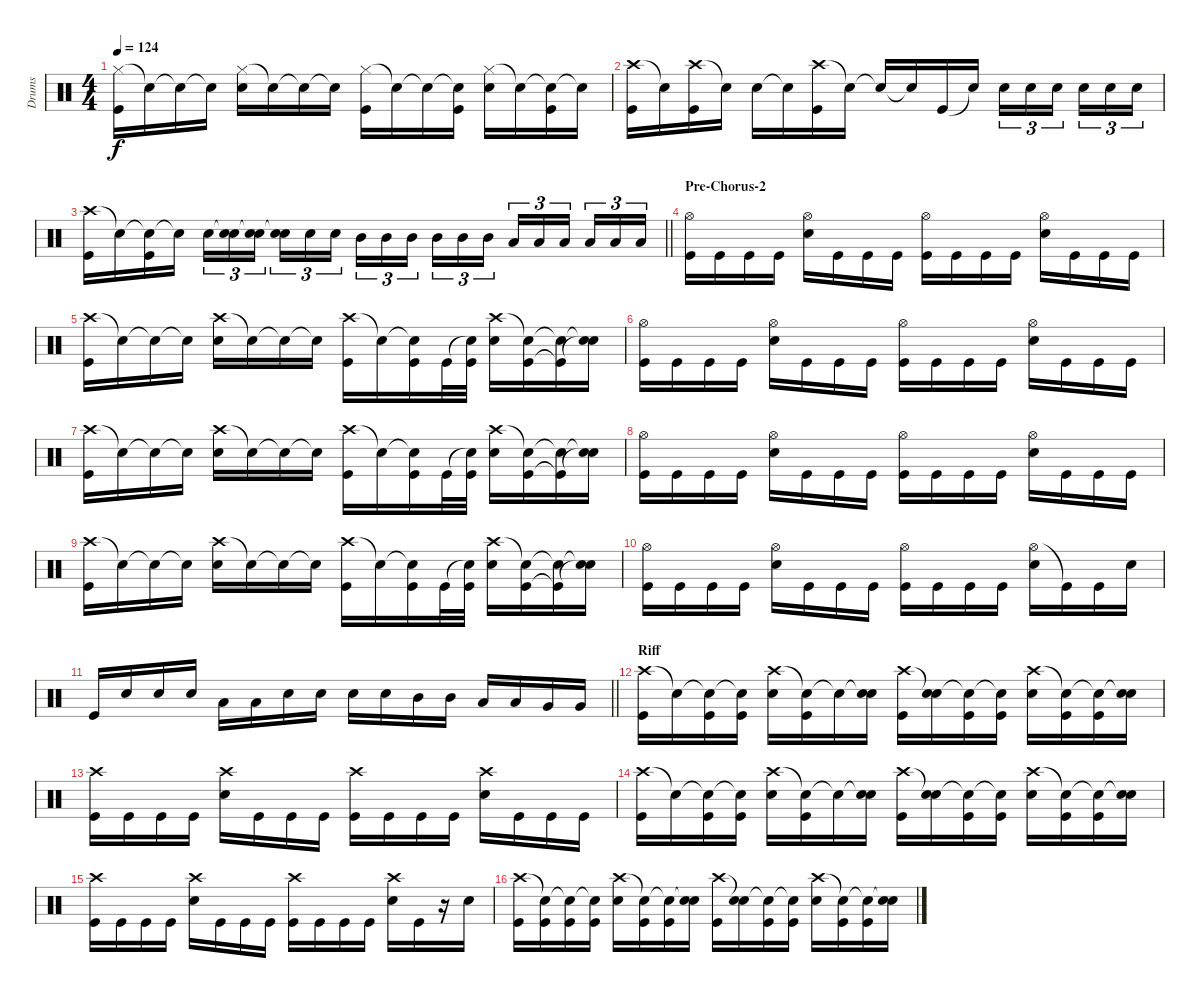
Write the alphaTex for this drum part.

\track ("Drums" "Drums") {instrument percussion}
\staff {score}
\articulation defaults
\ts (4 4)
\tempo 124
\clef neutral
\ks c
("Hi-Hat (closed)" "Kick (hit)").16{dy f} "Snare (hit)"{t}.16 "Snare (hit)"{t}.16 "Snare (hit)"{t}.16 ("Hi-Hat (closed)" "Electric Snare (hit)").16 "Snare (hit)"{t}.16 "Snare (hit)"{t}.16 "Snare (hit)"{t}.16 ("Hi-Hat (closed)" "Kick (hit)").16 "Snare (hit)"{t}.16 "Snare (hit)"{t}.16 ("Snare (hit)"{t} "Kick (hit)").16 ("Hi-Hat (closed)" "Electric Snare (hit)").16 "Snare (hit)"{t}.16 ("Snare (hit)"{t} "Kick (hit)").16 "Snare (hit)"{t}.16 |
("Crash high (hit)" "Kick (hit)").16 "Snare (hit)"{t}.16 ("Crash high (hit)" "Kick (hit)").16 "Snare (hit)"{t}.16 "Electric Snare (hit)".16 "Snare (hit)"{t}.16 ("Crash high (hit)" "Kick (hit)").16 "Snare (hit)"{t}.16 "Snare (hit)"{t}.16 "Snare (hit)"{t}.16 "Kick (hit)".16 "Snare (hit)"{t}.16 "Electric Snare (hit)".16{tu (3 2)} "Electric Snare (hit)".16{tu (3 2)} "Electric Snare (hit)".16{tu (3 2)} "Electric Snare (hit)".16{tu (3 2)} "Electric Snare (hit)".16{tu (3 2)} "Electric Snare (hit)".16{tu (3 2)} |
\barLineRight lightlight
("Crash high (hit)" "Kick (hit)").16 "Snare (hit)"{t}.16 ("Snare (hit)"{t} "Kick (hit)").16 "Snare (hit)"{t}.16 "Electric Snare (hit)".16{tu (3 2)} ("Snare (hit)"{t} "Electric Snare (hit)").16{tu (3 2)} ("Snare (hit)"{t} "Electric Snare (hit)").16{tu (3 2)} ("Snare (hit)"{t} "Electric Snare (hit)").16{tu (3 2)} "Electric Snare (hit)".16{tu (3 2)} "Electric Snare (hit)".16{tu (3 2)} "Mid Tom (hit)".16{tu (3 2)} "Mid Tom (hit)".16{tu (3 2)} "Mid Tom (hit)".16{tu (3 2)} "Mid Tom (hit)".16{tu (3 2)} "Mid Tom (hit)".16{tu (3 2)} "Mid Tom (hit)".16{tu (3 2)} "Low Tom (hit)".16{tu (3 2)} "Low Tom (hit)".16{tu (3 2)} "Low Tom (hit)".16{tu (3 2)} "Low Tom (hit)".16{tu (3 2)} "Low Tom (hit)".16{tu (3 2)} "Low Tom (hit)".16{tu (3 2)} |
\section ("" "Pre-Chorus-2")
("Hi-Hat (open)" "Kick (hit)").16 "Kick (hit)".16 "Kick (hit)".16 "Kick (hit)".16 ("Hi-Hat (open)" "Electric Snare (hit)").16 "Kick (hit)".16 "Kick (hit)".16 "Kick (hit)".16 ("Hi-Hat (open)" "Kick (hit)").16 "Kick (hit)".16 "Kick (hit)".16 "Kick (hit)".16 ("Hi-Hat (open)" "Electric Snare (hit)").16 "Kick (hit)".16 "Kick (hit)".16 "Kick (hit)".16 |
("Crash high (hit)" "Kick (hit)").16 "Snare (hit)"{t}.16 "Snare (hit)"{t}.16 "Snare (hit)"{t}.16 ("Crash high (hit)" "Electric Snare (hit)").16 "Snare (hit)"{t}.16 "Snare (hit)"{t}.16 "Snare (hit)"{t}.16 ("Crash high (hit)" "Kick (hit)").16 "Snare (hit)"{t}.16 ("Snare (hit)"{t} "Kick (hit)").16 "Kick (hit)".32 ("Snare (hit)"{t} "Kick (hit)").32 ("Crash high (hit)" "Electric Snare (hit)").16 ("Snare (hit)"{t} "Kick (hit)").16 ("Snare (hit)"{t} "Kick (hit)"{t}).16 ("Snare (hit)"{t} "Electric Snare (hit)"{t}).16 |
("Hi-Hat (open)" "Kick (hit)").16 "Kick (hit)".16 "Kick (hit)".16 "Kick (hit)".16 ("Hi-Hat (open)" "Electric Snare (hit)").16 "Kick (hit)".16 "Kick (hit)".16 "Kick (hit)".16 ("Hi-Hat (open)" "Kick (hit)").16 "Kick (hit)".16 "Kick (hit)".16 "Kick (hit)".16 ("Hi-Hat (open)" "Electric Snare (hit)").16 "Kick (hit)".16 "Kick (hit)".16 "Kick (hit)".16 |
("Crash high (hit)" "Kick (hit)").16 "Snare (hit)"{t}.16 "Snare (hit)"{t}.16 "Snare (hit)"{t}.16 ("Crash high (hit)" "Electric Snare (hit)").16 "Snare (hit)"{t}.16 "Snare (hit)"{t}.16 "Snare (hit)"{t}.16 ("Crash high (hit)" "Kick (hit)").16 "Snare (hit)"{t}.16 ("Snare (hit)"{t} "Kick (hit)").16 "Kick (hit)".32 ("Snare (hit)"{t} "Kick (hit)").32 ("Crash high (hit)" "Electric Snare (hit)").16 ("Snare (hit)"{t} "Kick (hit)").16 ("Snare (hit)"{t} "Kick (hit)"{t}).16 ("Snare (hit)"{t} "Electric Snare (hit)"{t}).16 |
("Hi-Hat (open)" "Kick (hit)").16 "Kick (hit)".16 "Kick (hit)".16 "Kick (hit)".16 ("Hi-Hat (open)" "Electric Snare (hit)").16 "Kick (hit)".16 "Kick (hit)".16 "Kick (hit)".16 ("Hi-Hat (open)" "Kick (hit)").16 "Kick (hit)".16 "Kick (hit)".16 "Kick (hit)".16 ("Hi-Hat (open)" "Electric Snare (hit)").16 "Kick (hit)".16 "Kick (hit)".16 "Kick (hit)".16 |
("Crash high (hit)" "Kick (hit)").16 "Snare (hit)"{t}.16 "Snare (hit)"{t}.16 "Snare (hit)"{t}.16 ("Crash high (hit)" "Electric Snare (hit)").16 "Snare (hit)"{t}.16 "Snare (hit)"{t}.16 "Snare (hit)"{t}.16 ("Crash high (hit)" "Kick (hit)").16 "Snare (hit)"{t}.16 ("Snare (hit)"{t} "Kick (hit)").16 "Kick (hit)".32 ("Snare (hit)"{t} "Kick (hit)").32 ("Crash high (hit)" "Electric Snare (hit)").16 ("Snare (hit)"{t} "Kick (hit)").16 ("Snare (hit)"{t} "Kick (hit)"{t}).16 ("Snare (hit)"{t} "Electric Snare (hit)"{t}).16 |
("Hi-Hat (open)" "Kick (hit)").16 "Kick (hit)".16 "Kick (hit)".16 "Kick (hit)".16 ("Hi-Hat (open)" "Electric Snare (hit)").16 "Kick (hit)".16 "Kick (hit)".16 "Kick (hit)".16 ("Hi-Hat (open)" "Kick (hit)").16 "Kick (hit)".16 "Kick (hit)".16 "Kick (hit)".16 ("Hi-Hat (open)" "Electric Snare (hit)").16 "Kick (hit)"{t}.16 "Kick (hit)".16 "Electric Snare (hit)".16 |
\barLineRight lightlight "Kick (hit)".16 "Electric Snare (hit)".16 "Electric Snare (hit)".16 "Electric Snare (hit)".16 "Low Tom (hit)".16 "Low Tom (hit)".16 "Electric Snare (hit)".16 "Electric Snare (hit)".16 "Electric Snare (hit)".16 "Electric Snare (hit)".16 "Mid Tom (hit)".16 "Mid Tom (hit)".16 "Low Tom (hit)".16 "Low Tom (hit)".16 "Very Low Tom (hit)".16 "Very Low Tom (hit)".16
|
\section ("" "Riff")
("Crash high (hit)" "Kick (hit)").16 "Snare (hit)"{t}.16 ("Snare (hit)"{t} "Kick (hit)").16 ("Snare (hit)"{t} "Kick (hit)").16 ("Crash high (hit)" "Electric Snare (hit)").16 ("Snare (hit)"{t} "Kick (hit)").16 "Snare (hit)"{t}.16 ("Snare (hit)"{t} "Electric Snare (hit)").16 ("Crash high (hit)" "Kick (hit)").16 ("Snare (hit)"{t} "Electric Snare (hit)").16 ("Snare (hit)"{t} "Kick (hit)").16 ("Snare (hit)"{t} "Kick (hit)").16 ("Crash high (hit)" "Electric Snare (hit)").16 ("Snare (hit)"{t} "Kick (hit)").16 ("Snare (hit)"{t} "Kick (hit)").16 ("Snare (hit)"{t} "Electric Snare (hit)").16 |
("Crash high (hit)" "Kick (hit)").16 "Kick (hit)".16 "Kick (hit)".16 "Kick (hit)".16 ("Crash high (hit)" "Electric Snare (hit)").16 "Kick (hit)".16 "Kick (hit)".16 "Kick (hit)".16 ("Crash high (hit)" "Kick (hit)").16 "Kick (hit)".16 "Kick (hit)".16 "Kick (hit)".16 ("Crash high (hit)" "Electric Snare (hit)").16 "Kick (hit)".16 "Kick (hit)".16 "Kick (hit)".16 |
("Crash high (hit)" "Kick (hit)").16 "Snare (hit)"{t}.16 ("Snare (hit)"{t} "Kick (hit)").16 ("Snare (hit)"{t} "Kick (hit)").16 ("Crash high (hit)" "Electric Snare (hit)").16 ("Snare (hit)"{t} "Kick (hit)").16 "Snare (hit)"{t}.16 ("Snare (hit)"{t} "Electric Snare (hit)").16 ("Crash high (hit)" "Kick (hit)").16 ("Snare (hit)"{t} "Electric Snare (hit)").16 ("Snare (hit)"{t} "Kick (hit)").16 ("Snare (hit)"{t} "Kick (hit)").16 ("Crash high (hit)" "Electric Snare (hit)").16 ("Snare (hit)"{t} "Kick (hit)").16 ("Snare (hit)"{t} "Kick (hit)").16 ("Snare (hit)"{t} "Electric Snare (hit)").16 |
("Crash high (hit)" "Kick (hit)").16 "Kick (hit)".16 "Kick (hit)".16 "Kick (hit)".16 ("Crash high (hit)" "Electric Snare (hit)").16 "Kick (hit)".16 "Kick (hit)".16 "Kick (hit)".16 ("Crash high (hit)" "Kick (hit)").16 "Kick (hit)".16 "Kick (hit)".16 "Kick (hit)".16 ("Crash high (hit)" "Electric Snare (hit)").16 "Kick (hit)".16 r.16 "Electric Snare (hit)".16 |
("Crash high (hit)" "Kick (hit)").16 ("Snare (hit)"{t} "Kick (hit)").16 ("Snare (hit)"{t} "Kick (hit)").16 ("Snare (hit)"{t} "Kick (hit)").16 ("Crash high (hit)" "Electric Snare (hit)").16 ("Snare (hit)"{t} "Kick (hit)").16 ("Snare (hit)"{t} "Kick (hit)").16 ("Snare (hit)"{t} "Electric Snare (hit)").16 ("Crash high (hit)" "Kick (hit)").16 ("Snare (hit)"{t} "Electric Snare (hit)").16 ("Snare (hit)"{t} "Kick (hit)").16 ("Snare (hit)"{t} "Kick (hit)").16 ("Crash high (hit)" "Electric Snare (hit)").16 ("Snare (hit)"{t} "Kick (hit)").16 ("Snare (hit)"{t} "Kick (hit)").16 ("Snare (hit)"{t} "Electric Snare (hit)").16
